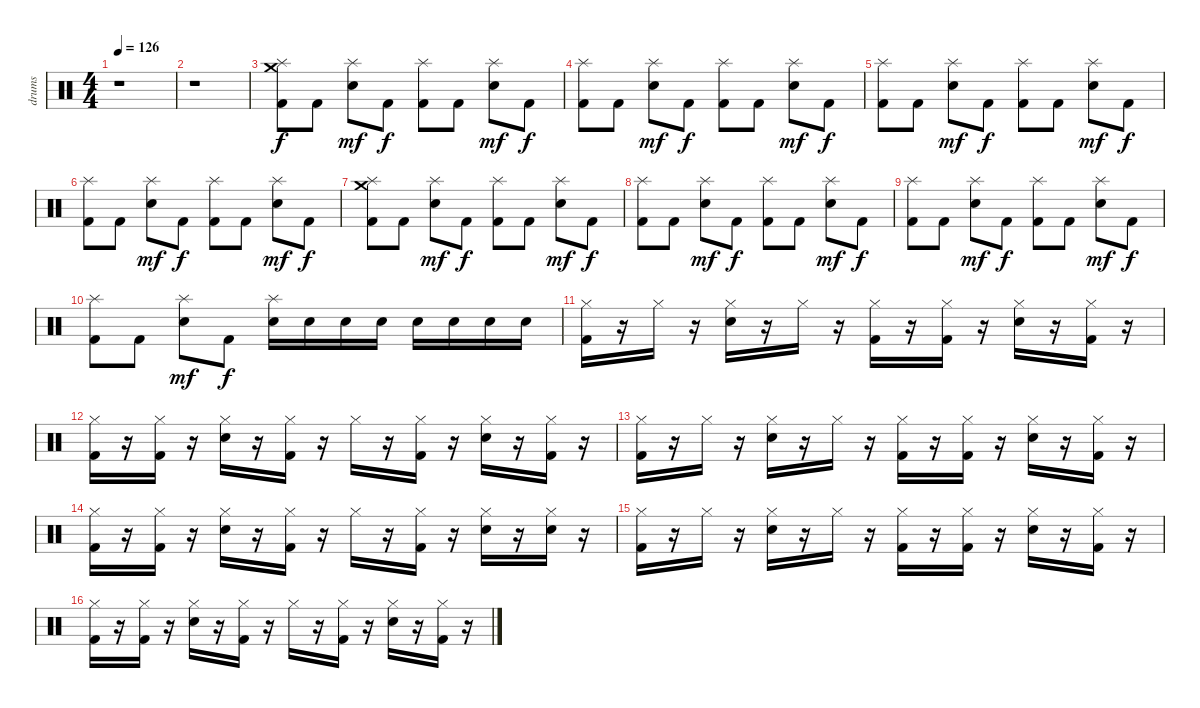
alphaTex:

\track ("drums" "drums") {instrument percussion}
\staff {score}
\articulation defaults
\ts (4 4)
\tempo 126
\clef neutral
\ks c
r.1{dy f} |
r.1 |
("Crash medium (hit)" "Kick (hit) 2" "Splash (hit)").8 "Kick (hit) 2".8 ("Snare (hit) 2" "Splash (hit)").8{dy mf} "Kick (hit) 2".8{dy f} ("Kick (hit) 2" "Splash (hit)").8 "Kick (hit) 2".8 ("Snare (hit) 2" "Splash (hit)").8{dy mf} "Kick (hit) 2".8{dy f} |
("Kick (hit) 2" "Splash (hit)").8 "Kick (hit) 2".8 ("Snare (hit) 2" "Splash (hit)").8{dy mf} "Kick (hit) 2".8{dy f} ("Kick (hit) 2" "Splash (hit)").8 "Kick (hit) 2".8 ("Snare (hit) 2" "Splash (hit)").8{dy mf} "Kick (hit) 2".8{dy f} |
("Kick (hit) 2" "Splash (hit)").8 "Kick (hit) 2".8 ("Snare (hit) 2" "Splash (hit)").8{dy mf} "Kick (hit) 2".8{dy f} ("Kick (hit) 2" "Splash (hit)").8 "Kick (hit) 2".8 ("Snare (hit) 2" "Splash (hit)").8{dy mf} "Kick (hit) 2".8{dy f} |
("Kick (hit) 2" "Splash (hit)").8 "Kick (hit) 2".8 ("Snare (hit) 2" "Splash (hit)").8{dy mf} "Kick (hit) 2".8{dy f} ("Kick (hit) 2" "Splash (hit)").8 "Kick (hit) 2".8 ("Snare (hit) 2" "Splash (hit)").8{dy mf} "Kick (hit) 2".8{dy f} |
("Crash medium (hit)" "Kick (hit) 2" "Splash (hit)").8 "Kick (hit) 2".8 ("Snare (hit) 2" "Splash (hit)").8{dy mf} "Kick (hit) 2".8{dy f} ("Kick (hit) 2" "Splash (hit)").8 "Kick (hit) 2".8 ("Snare (hit) 2" "Splash (hit)").8{dy mf} "Kick (hit) 2".8{dy f} |
("Kick (hit) 2" "Splash (hit)").8 "Kick (hit) 2".8 ("Snare (hit) 2" "Splash (hit)").8{dy mf} "Kick (hit) 2".8{dy f} ("Kick (hit) 2" "Splash (hit)").8 "Kick (hit) 2".8 ("Snare (hit) 2" "Splash (hit)").8{dy mf} "Kick (hit) 2".8{dy f} |
("Kick (hit) 2" "Splash (hit)").8 "Kick (hit) 2".8 ("Snare (hit) 2" "Splash (hit)").8{dy mf} "Kick (hit) 2".8{dy f} ("Kick (hit) 2" "Splash (hit)").8 "Kick (hit) 2".8 ("Snare (hit) 2" "Splash (hit)").8{dy mf} "Kick (hit) 2".8{dy f} |
("Kick (hit) 2" "Splash (hit)").8 "Kick (hit) 2".8 ("Snare (hit) 2" "Splash (hit)").8{dy mf} "Kick (hit) 2".8{dy f} ("Snare (hit) 2" "Splash (hit)").16 "Snare (hit) 2".16 "Snare (hit) 2".16 "Snare (hit) 2".16 "Snare (hit) 2".16 "Snare (hit) 2".16 "Snare (hit) 2".16 "Snare (hit) 2".16 |
("Kick (hit) 2" "Hi-Hat (closed)").16 r.16 "Hi-Hat (closed)".16 r.16 ("Hi-Hat (closed)" "Snare (hit) 2").16 r.16 "Hi-Hat (closed)".16 r.16 ("Kick (hit) 2" "Hi-Hat (closed)").16 r.16 ("Kick (hit) 2" "Hi-Hat (closed)").16 r.16 ("Snare (hit) 2" "Hi-Hat (closed)").16 r.16 ("Kick (hit) 2" "Hi-Hat (closed)").16 r.16 |
("Hi-Hat (closed)" "Kick (hit) 2").16 r.16 ("Hi-Hat (closed)" "Kick (hit) 2").16 r.16 ("Hi-Hat (closed)" "Snare (hit) 2").16 r.16 ("Hi-Hat (closed)" "Kick (hit) 2").16 r.16 "Hi-Hat (closed)".16 r.16 ("Hi-Hat (closed)" "Kick (hit) 2").16 r.16 ("Hi-Hat (closed)" "Snare (hit) 2").16 r.16 ("Hi-Hat (closed)" "Kick (hit) 2").16 r.16 |
("Kick (hit) 2" "Hi-Hat (closed)").16 r.16 "Hi-Hat (closed)".16 r.16 ("Hi-Hat (closed)" "Snare (hit) 2").16 r.16 "Hi-Hat (closed)".16 r.16 ("Kick (hit) 2" "Hi-Hat (closed)").16 r.16 ("Kick (hit) 2" "Hi-Hat (closed)").16 r.16 ("Snare (hit) 2" "Hi-Hat (closed)").16 r.16 ("Kick (hit) 2" "Hi-Hat (closed)").16 r.16 |
("Hi-Hat (closed)" "Kick (hit) 2").16 r.16 ("Hi-Hat (closed)" "Kick (hit) 2").16 r.16 ("Hi-Hat (closed)" "Snare (hit) 2").16 r.16 ("Hi-Hat (closed)" "Kick (hit) 2").16 r.16 "Hi-Hat (closed)".16 r.16 ("Hi-Hat (closed)" "Kick (hit) 2").16 r.16 ("Hi-Hat (closed)" "Snare (hit) 2").16 r.16 ("Hi-Hat (closed)" "Snare (hit) 2").16 r.16 |
("Kick (hit) 2" "Hi-Hat (closed)").16 r.16 "Hi-Hat (closed)".16 r.16 ("Hi-Hat (closed)" "Snare (hit) 2").16 r.16 "Hi-Hat (closed)".16 r.16 ("Kick (hit) 2" "Hi-Hat (closed)").16 r.16 ("Kick (hit) 2" "Hi-Hat (closed)").16 r.16 ("Snare (hit) 2" "Hi-Hat (closed)").16 r.16 ("Kick (hit) 2" "Hi-Hat (closed)").16 r.16 |
("Hi-Hat (closed)" "Kick (hit) 2").16 r.16 ("Hi-Hat (closed)" "Kick (hit) 2").16 r.16 ("Hi-Hat (closed)" "Snare (hit) 2").16 r.16 ("Hi-Hat (closed)" "Kick (hit) 2").16 r.16 "Hi-Hat (closed)".16 r.16 ("Hi-Hat (closed)" "Kick (hit) 2").16 r.16 ("Hi-Hat (closed)" "Snare (hit) 2").16 r.16 ("Hi-Hat (closed)" "Kick (hit) 2").16 r.16
